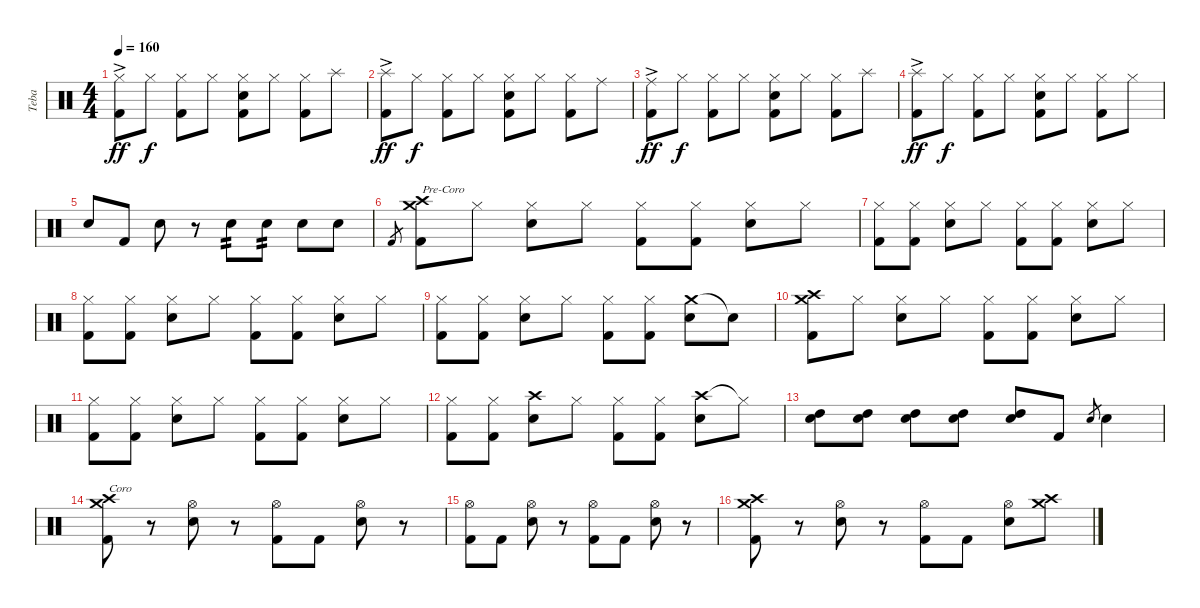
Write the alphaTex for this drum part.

\track ("Teba" "Teba") {instrument percussion}
\staff {score}
\articulation defaults
\ts (4 4)
\tempo 160
\clef neutral
\ks c
("Hi-Hat (closed)" "Kick (hit) 2"{ac}).8{dy ff} "Hi-Hat (closed)".8{dy f} ("Hi-Hat (closed)" "Kick (hit) 2").8 "Hi-Hat (closed)".8 ("Hi-Hat (closed)" "Electric Snare (hit)" "Kick (hit) 2").8 "Hi-Hat (closed)".8 ("Hi-Hat (closed)" "Kick (hit) 2").8 "Splash (hit)".8 |
("Splash (hit)" "Kick (hit) 2"{ac}).8{dy ff} "Hi-Hat (closed)".8{dy f} ("Hi-Hat (closed)" "Kick (hit) 2").8 "Hi-Hat (closed)".8 ("Hi-Hat (closed)" "Electric Snare (hit)" "Kick (hit) 2").8 "Hi-Hat (closed)".8 ("Hi-Hat (closed)" "Kick (hit) 2").8 "Ride (middle)".8 |
("Ride (middle)" "Kick (hit) 2"{ac}).8{dy ff} "Hi-Hat (closed)".8{dy f} ("Hi-Hat (closed)" "Kick (hit) 2").8 "Hi-Hat (closed)".8 ("Hi-Hat (closed)" "Electric Snare (hit)" "Kick (hit) 2").8 "Hi-Hat (closed)".8 ("Hi-Hat (closed)" "Kick (hit) 2").8 "Splash (hit)".8 |
("Splash (hit)" "Kick (hit) 2"{ac}).8{dy ff} "Hi-Hat (closed)".8{dy f} ("Hi-Hat (closed)" "Kick (hit) 2").8 "Hi-Hat (closed)".8 ("Hi-Hat (closed)" "Electric Snare (hit)" "Kick (hit) 2").8 "Hi-Hat (closed)".8 ("Hi-Hat (closed)" "Kick (hit) 2").8 "Hi-Hat (closed)".8 |
"Electric Snare (hit)".8 "Kick (hit) 2".8 "Electric Snare (hit)".8 r.8 "Electric Snare (hit)".8{tp 2} "Electric Snare (hit)".8{tp 2} "Electric Snare (hit)".8 "Electric Snare (hit)".8 |
"Kick (hit) 2"{h}.8{gr} ("Crash medium (hit)" "Crash high (hit)" "Kick (hit) 2").8{txt "Pre-Coro"} "Hi-Hat (closed)".8 ("Hi-Hat (closed)" "Electric Snare (hit)").8 "Hi-Hat (closed)".8 ("Hi-Hat (closed)" "Kick (hit) 2").8 ("Hi-Hat (closed)" "Kick (hit) 2").8 ("Hi-Hat (closed)" "Electric Snare (hit)").8 "Hi-Hat (closed)".8 |
("Hi-Hat (closed)" "Kick (hit) 2").8 ("Hi-Hat (closed)" "Kick (hit) 2").8 ("Hi-Hat (closed)" "Electric Snare (hit)").8 "Hi-Hat (closed)".8 ("Hi-Hat (closed)" "Kick (hit) 2").8 ("Hi-Hat (closed)" "Kick (hit) 2").8 ("Hi-Hat (closed)" "Electric Snare (hit)").8 "Hi-Hat (closed)".8 |
("Hi-Hat (closed)" "Kick (hit) 2").8 ("Hi-Hat (closed)" "Kick (hit) 2").8 ("Hi-Hat (closed)" "Electric Snare (hit)").8 "Hi-Hat (closed)".8 ("Hi-Hat (closed)" "Kick (hit) 2").8 ("Hi-Hat (closed)" "Kick (hit) 2").8 ("Hi-Hat (closed)" "Electric Snare (hit)").8 "Hi-Hat (closed)".8 |
("Hi-Hat (closed)" "Kick (hit) 2").8 ("Hi-Hat (closed)" "Kick (hit) 2").8 ("Hi-Hat (closed)" "Electric Snare (hit)").8 "Hi-Hat (closed)".8 ("Hi-Hat (closed)" "Kick (hit) 2").8 ("Hi-Hat (closed)" "Kick (hit) 2").8 ("Crash medium (hit)" "Electric Snare (hit)").8 "Snare (hit)"{t}.8 |
("Crash medium (hit)" "Crash high (hit)" "Kick (hit) 2").8 "Hi-Hat (closed)".8 ("Hi-Hat (closed)" "Electric Snare (hit)").8 "Hi-Hat (closed)".8 ("Hi-Hat (closed)" "Kick (hit) 2").8 ("Hi-Hat (closed)" "Kick (hit) 2").8 ("Hi-Hat (closed)" "Electric Snare (hit)").8 "Hi-Hat (closed)".8 |
("Hi-Hat (closed)" "Kick (hit) 2").8 ("Hi-Hat (closed)" "Kick (hit) 2").8 ("Hi-Hat (closed)" "Electric Snare (hit)").8 "Hi-Hat (closed)".8 ("Hi-Hat (closed)" "Kick (hit) 2").8 ("Hi-Hat (closed)" "Kick (hit) 2").8 ("Hi-Hat (closed)" "Electric Snare (hit)").8 "Hi-Hat (closed)".8 |
("Hi-Hat (closed)" "Kick (hit) 2").8 ("Hi-Hat (closed)" "Kick (hit) 2").8 ("Crash high (hit)" "Electric Snare (hit)").8 "Hi-Hat (closed)".8 ("Hi-Hat (closed)" "Kick (hit) 2").8 ("Hi-Hat (closed)" "Kick (hit) 2").8 ("Crash high (hit)" "Electric Snare (hit)").8 "Hi-Hat (closed)"{t}.8 |
("High Tom (hit)" "Electric Snare (hit)").8 ("High Tom (hit)" "Electric Snare (hit)").8 ("High Tom (hit)" "Electric Snare (hit)").8 ("High Tom (hit)" "Electric Snare (hit)").8 ("High Tom (hit)" "Electric Snare (hit)").8 "Kick (hit) 2".8 "Electric Snare (hit)".8{gr} "Electric Snare (hit)".4 |
("Crash medium (hit)" "Crash high (hit)" "Kick (hit) 2").8{txt "Coro"} r.8 ("Hi-Hat (open)" "Electric Snare (hit)").8 r.8 ("Hi-Hat (open)" "Kick (hit) 2").8 "Kick (hit) 2".8 ("Hi-Hat (open)" "Electric Snare (hit)").8 r.8 |
("Hi-Hat (open)" "Kick (hit) 2").8 "Kick (hit) 2".8 ("Hi-Hat (open)" "Electric Snare (hit)").8 r.8 ("Hi-Hat (open)" "Kick (hit) 2").8 "Kick (hit) 2".8 ("Hi-Hat (open)" "Electric Snare (hit)").8 r.8 |
("Crash medium (hit)" "Crash high (hit)" "Kick (hit) 2").8 r.8 ("Hi-Hat (open)" "Electric Snare (hit)").8 r.8 ("Hi-Hat (open)" "Kick (hit) 2").8 "Kick (hit) 2".8 ("Hi-Hat (open)" "Electric Snare (hit)").8 ("Crash medium (hit)" "Crash high (hit)").8
